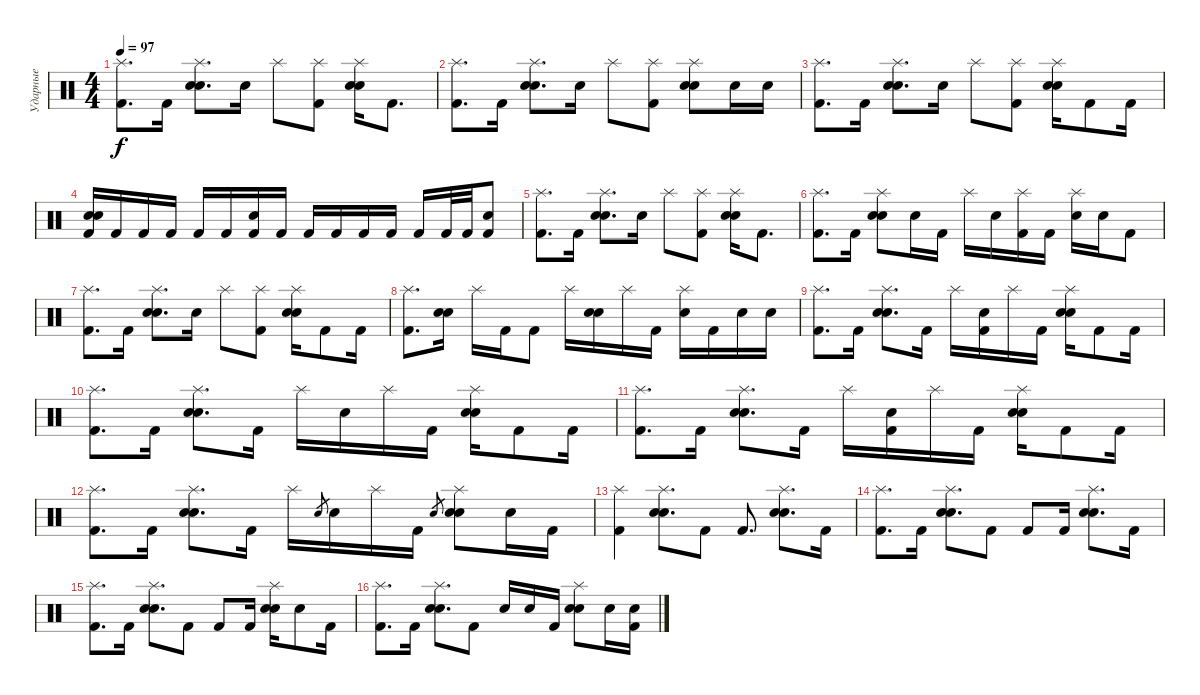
\track ("Ударные" "Ударные") {instrument percussion}
\staff {score}
\articulation defaults
\ts (4 4)
\tempo 97
\clef neutral
\ks c
("Splash (hit)" "Kick (hit) 2").8{d dy f} "Kick (hit) 2".16 ("Splash (hit)" "Electric Snare (hit)" "Snare (hit) 2").8{d} "Electric Snare (hit)".16 "Splash (hit)".8 ("Splash (hit)" "Kick (hit) 2").8 ("Splash (hit)" "Electric Snare (hit)" "Snare (hit) 2").16 "Kick (hit) 2".8{d} |
("Splash (hit)" "Kick (hit) 2").8{d} "Kick (hit) 2".16 ("Splash (hit)" "Electric Snare (hit)" "Snare (hit) 2").8{d} "Electric Snare (hit)".16 "Splash (hit)".8 ("Splash (hit)" "Kick (hit) 2").8 ("Splash (hit)" "Electric Snare (hit)" "Snare (hit) 2").8 "Electric Snare (hit)".16 "Electric Snare (hit)".16 |
("Splash (hit)" "Kick (hit) 2").8{d} "Kick (hit) 2".16 ("Splash (hit)" "Electric Snare (hit)" "Snare (hit) 2").8{d} "Electric Snare (hit)".16 "Splash (hit)".8 ("Splash (hit)" "Kick (hit) 2").8 ("Splash (hit)" "Electric Snare (hit)" "Snare (hit) 2").16 "Kick (hit) 2".8 "Kick (hit) 2".16 |
("Electric Snare (hit)" "Snare (hit) 2" "Kick (hit) 2").16 "Kick (hit) 2".16 "Kick (hit) 2".16 "Kick (hit) 2".16 "Kick (hit) 2".16 "Kick (hit) 2".16 ("Electric Snare (hit)" "Kick (hit) 2").16 "Kick (hit) 2".16 "Kick (hit) 2".16 "Kick (hit) 2".16 "Kick (hit) 2".16 "Kick (hit) 2".16 "Kick (hit) 2".16 "Kick (hit) 2".32 "Kick (hit) 2".32 ("Electric Snare (hit)" "Kick (hit) 2").8 |
("Splash (hit)" "Kick (hit) 2").8{d} "Kick (hit) 2".16 ("Splash (hit)" "Electric Snare (hit)" "Snare (hit) 2").8{d} "Electric Snare (hit)".16 "Splash (hit)".8 ("Splash (hit)" "Kick (hit) 2").8 ("Splash (hit)" "Electric Snare (hit)" "Snare (hit) 2").16 "Kick (hit) 2".8{d} |
("Splash (hit)" "Kick (hit) 2").8{d} "Kick (hit) 2".16 ("Splash (hit)" "Electric Snare (hit)" "Snare (hit) 2").8 "Electric Snare (hit)".16 "Kick (hit) 2".16 "Splash (hit)".16 "Electric Snare (hit)".16 ("Splash (hit)" "Kick (hit) 2").16 "Kick (hit) 2".16 ("Splash (hit)" "Electric Snare (hit)").16 "Electric Snare (hit)".16 "Kick (hit) 2".8 |
("Splash (hit)" "Kick (hit) 2").8{d} "Kick (hit) 2".16 ("Splash (hit)" "Electric Snare (hit)" "Snare (hit) 2").8{d} "Electric Snare (hit)".16 "Splash (hit)".8 ("Splash (hit)" "Kick (hit) 2").8 ("Splash (hit)" "Electric Snare (hit)" "Snare (hit) 2").16 "Kick (hit) 2".8 "Kick (hit) 2".16 |
("Splash (hit)" "Kick (hit) 2").8{d} ("Electric Snare (hit)" "Snare (hit) 2").16 "Splash (hit)".16 "Kick (hit) 2".16 "Kick (hit) 2".8 "Splash (hit)".16 ("Electric Snare (hit)" "Snare (hit) 2").16 "Splash (hit)".16 "Kick (hit) 2".16 ("Splash (hit)" "Electric Snare (hit)").16 "Kick (hit) 2".16 "Electric Snare (hit)".16 "Electric Snare (hit)".16 |
("Splash (hit)" "Kick (hit) 2").8{d} "Kick (hit) 2".16 ("Splash (hit)" "Electric Snare (hit)" "Snare (hit) 2").8{d} "Kick (hit) 2".16 "Splash (hit)".16 ("Electric Snare (hit)" "Kick (hit) 2").16 "Splash (hit)".16 "Kick (hit) 2".16 ("Splash (hit)" "Electric Snare (hit)" "Snare (hit) 2").16 "Kick (hit) 2".8 "Kick (hit) 2".16 |
("Splash (hit)" "Kick (hit) 2").8{d} "Kick (hit) 2".16 ("Splash (hit)" "Electric Snare (hit)" "Snare (hit) 2").8{d} "Kick (hit) 2".16 "Splash (hit)".16 "Electric Snare (hit)".16 "Splash (hit)".16 "Kick (hit) 2".16 ("Splash (hit)" "Electric Snare (hit)" "Snare (hit) 2").16 "Kick (hit) 2".8 "Kick (hit) 2".16 |
("Splash (hit)" "Kick (hit) 2").8{d} "Kick (hit) 2".16 ("Splash (hit)" "Electric Snare (hit)" "Snare (hit) 2").8{d} "Kick (hit) 2".16 "Splash (hit)".16 ("Electric Snare (hit)" "Kick (hit) 2").16 "Splash (hit)".16 "Kick (hit) 2".16 ("Splash (hit)" "Electric Snare (hit)" "Snare (hit) 2").16 "Kick (hit) 2".8 "Kick (hit) 2".16 |
("Splash (hit)" "Kick (hit) 2").8{d} "Kick (hit) 2".16 ("Splash (hit)" "Electric Snare (hit)" "Snare (hit) 2").8{d} "Kick (hit) 2".16 "Splash (hit)".16 "Electric Snare (hit)".8{gr} "Electric Snare (hit)".16 "Splash (hit)".16 "Kick (hit) 2".16 "Electric Snare (hit)".8{gr} ("Splash (hit)" "Electric Snare (hit)" "Snare (hit) 2").8 "Electric Snare (hit)".16 "Kick (hit) 2".16 |
("Splash (hit)" "Kick (hit) 2").4 ("Splash (hit)" "Electric Snare (hit)" "Snare (hit) 2").8{d} "Kick (hit) 2".8 "Kick (hit) 2".8{d} ("Splash (hit)" "Electric Snare (hit)" "Snare (hit) 2").8{d} "Kick (hit) 2".16 |
("Splash (hit)" "Kick (hit) 2").8{d} "Kick (hit) 2".16 ("Splash (hit)" "Electric Snare (hit)" "Snare (hit) 2").8{d} "Kick (hit) 2".8 "Kick (hit) 2".8 "Kick (hit) 2".16 ("Splash (hit)" "Electric Snare (hit)" "Snare (hit) 2").8{d} "Kick (hit) 2".16 |
("Splash (hit)" "Kick (hit) 2").8{d} "Kick (hit) 2".16 ("Splash (hit)" "Electric Snare (hit)" "Snare (hit) 2").8{d} "Kick (hit) 2".8 "Kick (hit) 2".8 "Kick (hit) 2".16 ("Splash (hit)" "Electric Snare (hit)" "Snare (hit) 2").16 "Electric Snare (hit)".8 "Kick (hit) 2".16 |
("Splash (hit)" "Kick (hit) 2").8{d} "Kick (hit) 2".16 ("Splash (hit)" "Electric Snare (hit)" "Snare (hit) 2").8{d} "Kick (hit) 2".8 "Electric Snare (hit)".16 "Electric Snare (hit)".16 "Kick (hit) 2".16 ("Splash (hit)" "Electric Snare (hit)" "Snare (hit) 2").8 "Electric Snare (hit)".16 ("Electric Snare (hit)" "Kick (hit) 2").16
